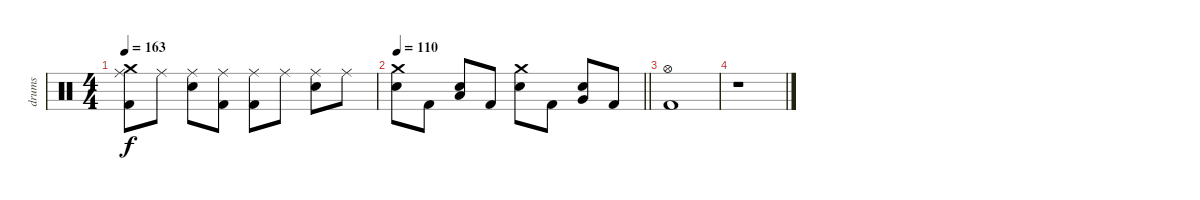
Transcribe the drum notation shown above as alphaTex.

\track ("drums" "drums") {instrument percussion}
\staff {score}
\articulation defaults
\ts (4 4)
\tempo 163
\clef neutral
\ks c
("Crash medium (hit)" "Ride (middle)" "Kick (hit) 2").8{dy f} "Ride (middle)".8 ("Ride (middle)" "Electric Snare (hit)").8 ("Ride (middle)" "Kick (hit) 2").8 ("Ride (middle)" "Kick (hit) 2").8 "Ride (middle)".8 ("Ride (middle)" "Electric Snare (hit)").8 "Ride (middle)".8 |
\tempo 110
\barLineRight lightlight
("Crash medium (hit)" "Electric Snare (hit)").8 "Kick (hit) 2".8 ("Low Tom (hit)" "Electric Snare (hit)").8 "Kick (hit) 2".8 ("Crash medium (hit)" "Electric Snare (hit)").8 "Kick (hit) 2".8 ("Very Low Tom (hit)" "Electric Snare (hit)").8 "Kick (hit) 2".8 |
("Hi-Hat (open)" "Kick (hit) 2").1 |
r.1
